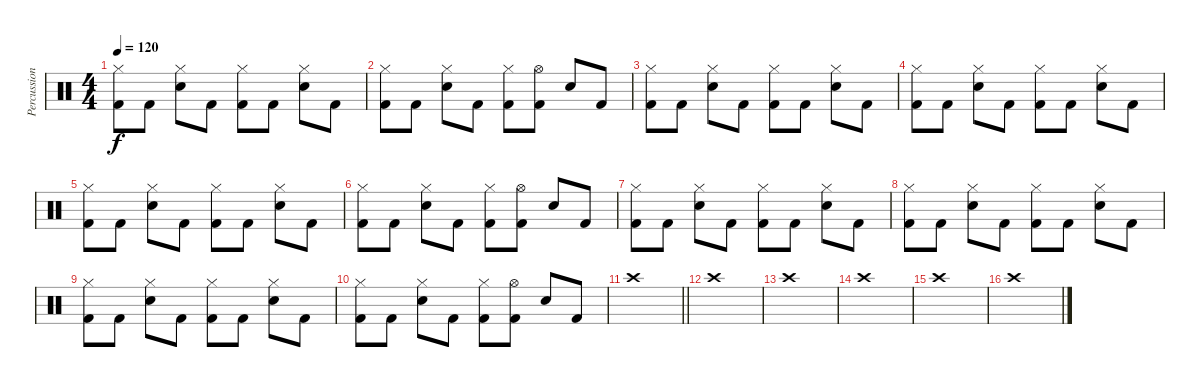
\track ("Percussions" "Percussion") {instrument percussion}
\staff {score}
\articulation defaults
\ts (4 4)
\tempo 120
\clef neutral
\ks c
("Hi-Hat (closed)" "Kick (hit) 2").8{dy f} "Kick (hit) 2".8 ("Hi-Hat (closed)" "Electric Snare (hit)").8 "Kick (hit) 2".8 ("Hi-Hat (closed)" "Kick (hit) 2").8 "Kick (hit) 2".8 ("Hi-Hat (closed)" "Electric Snare (hit)").8 "Kick (hit) 2".8 |
("Hi-Hat (closed)" "Kick (hit) 2").8 "Kick (hit) 2".8 ("Hi-Hat (closed)" "Electric Snare (hit)").8 "Kick (hit) 2".8 ("Hi-Hat (closed)" "Kick (hit) 2").8 ("Hi-Hat (open)" "Kick (hit) 2").8 "Electric Snare (hit)".8 "Kick (hit) 2".8 |
("Hi-Hat (closed)" "Kick (hit) 2").8 "Kick (hit) 2".8 ("Hi-Hat (closed)" "Electric Snare (hit)").8 "Kick (hit) 2".8 ("Hi-Hat (closed)" "Kick (hit) 2").8 "Kick (hit) 2".8 ("Hi-Hat (closed)" "Electric Snare (hit)").8 "Kick (hit) 2".8 |
("Hi-Hat (closed)" "Kick (hit) 2").8 "Kick (hit) 2".8 ("Hi-Hat (closed)" "Electric Snare (hit)").8 "Kick (hit) 2".8 ("Hi-Hat (closed)" "Kick (hit) 2").8 "Kick (hit) 2".8 ("Hi-Hat (closed)" "Electric Snare (hit)").8 "Kick (hit) 2".8 |
("Hi-Hat (closed)" "Kick (hit) 2").8 "Kick (hit) 2".8 ("Hi-Hat (closed)" "Electric Snare (hit)").8 "Kick (hit) 2".8 ("Hi-Hat (closed)" "Kick (hit) 2").8 "Kick (hit) 2".8 ("Hi-Hat (closed)" "Electric Snare (hit)").8 "Kick (hit) 2".8 |
("Hi-Hat (closed)" "Kick (hit) 2").8 "Kick (hit) 2".8 ("Hi-Hat (closed)" "Electric Snare (hit)").8 "Kick (hit) 2".8 ("Hi-Hat (closed)" "Kick (hit) 2").8 ("Hi-Hat (open)" "Kick (hit) 2").8 "Electric Snare (hit)".8 "Kick (hit) 2".8 |
("Hi-Hat (closed)" "Kick (hit) 2").8 "Kick (hit) 2".8 ("Hi-Hat (closed)" "Electric Snare (hit)").8 "Kick (hit) 2".8 ("Hi-Hat (closed)" "Kick (hit) 2").8 "Kick (hit) 2".8 ("Hi-Hat (closed)" "Electric Snare (hit)").8 "Kick (hit) 2".8 |
("Hi-Hat (closed)" "Kick (hit) 2").8 "Kick (hit) 2".8 ("Hi-Hat (closed)" "Electric Snare (hit)").8 "Kick (hit) 2".8 ("Hi-Hat (closed)" "Kick (hit) 2").8 "Kick (hit) 2".8 ("Hi-Hat (closed)" "Electric Snare (hit)").8 "Kick (hit) 2".8 |
("Hi-Hat (closed)" "Kick (hit) 2").8 "Kick (hit) 2".8 ("Hi-Hat (closed)" "Electric Snare (hit)").8 "Kick (hit) 2".8 ("Hi-Hat (closed)" "Kick (hit) 2").8 "Kick (hit) 2".8 ("Hi-Hat (closed)" "Electric Snare (hit)").8 "Kick (hit) 2".8 |
("Hi-Hat (closed)" "Kick (hit) 2").8 "Kick (hit) 2".8 ("Hi-Hat (closed)" "Electric Snare (hit)").8 "Kick (hit) 2".8 ("Hi-Hat (closed)" "Kick (hit) 2").8 ("Hi-Hat (open)" "Kick (hit) 2").8 "Electric Snare (hit)".8 "Kick (hit) 2".8 |
\barLineRight lightlight "Crash high (hit)".1
|
"Crash high (hit)".1 |
"Crash high (hit)".1 |
"Crash high (hit)".1 |
"Crash high (hit)".1 |
"Crash high (hit)".1
